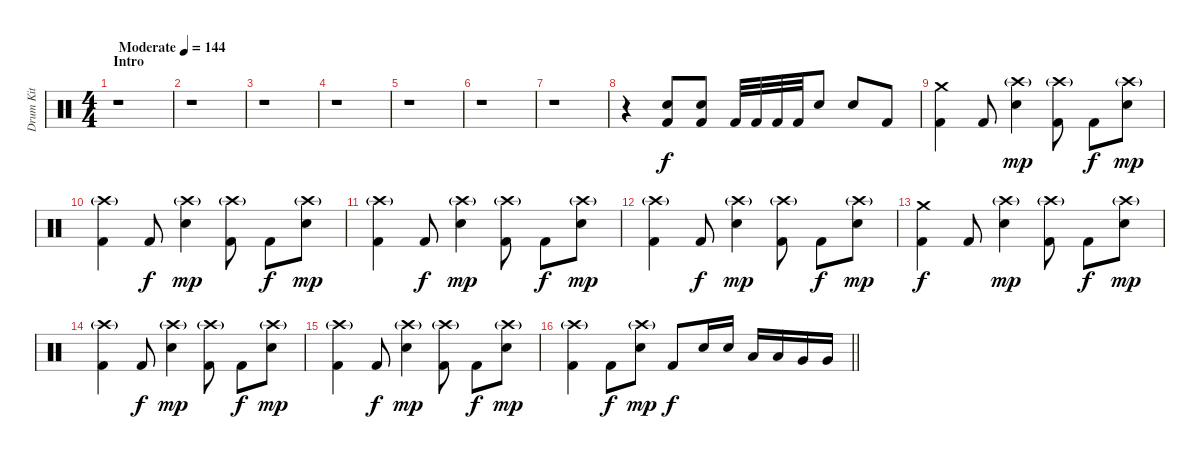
\track ("Drum Kit" "Drum Kit") {instrument percussion}
\staff {score}
\articulation defaults
\ts (4 4)
\section ("" "Intro")
\tempo (144 "Moderate")
\clef neutral
\ks c
r.1{dy f} |
r.1 |
r.1 |
r.1 |
r.1 |
r.1 |
r.1 |
r.4 ("Electric Snare (hit)" "Kick (hit) 2").8 ("Electric Snare (hit)" "Kick (hit) 2").8 "Kick (hit) 2".32 "Kick (hit) 2".32 "Kick (hit) 2".32 "Kick (hit) 2".32 "Electric Snare (hit)".8 "Electric Snare (hit)".8 "Kick (hit) 2".8 |
("Crash medium (hit)" "Kick (hit) 2").4 "Kick (hit) 2".8 ("Crash high (hit)"{g} "Electric Snare (hit)").4{dy mp} ("Crash high (hit)"{g} "Kick (hit) 2").8 "Kick (hit) 2".8{dy f} ("Crash high (hit)"{g} "Electric Snare (hit)").8{dy mp} |
("Crash high (hit)"{g} "Kick (hit) 2").4 "Kick (hit) 2".8{dy f} ("Crash high (hit)"{g} "Electric Snare (hit)").4{dy mp} ("Crash high (hit)"{g} "Kick (hit) 2").8 "Kick (hit) 2".8{dy f} ("Crash high (hit)"{g} "Electric Snare (hit)").8{dy mp} |
("Crash high (hit)"{g} "Kick (hit) 2").4 "Kick (hit) 2".8{dy f} ("Crash high (hit)"{g} "Electric Snare (hit)").4{dy mp} ("Crash high (hit)"{g} "Kick (hit) 2").8 "Kick (hit) 2".8{dy f} ("Crash high (hit)"{g} "Electric Snare (hit)").8{dy mp} |
("Crash high (hit)"{g} "Kick (hit) 2").4 "Kick (hit) 2".8{dy f} ("Crash high (hit)"{g} "Electric Snare (hit)").4{dy mp} ("Crash high (hit)"{g} "Kick (hit) 2").8 "Kick (hit) 2".8{dy f} ("Crash high (hit)"{g} "Electric Snare (hit)").8{dy mp} |
("Crash medium (hit)" "Kick (hit) 2").4{dy f} "Kick (hit) 2".8 ("Crash high (hit)"{g} "Electric Snare (hit)").4{dy mp} ("Crash high (hit)"{g} "Kick (hit) 2").8 "Kick (hit) 2".8{dy f} ("Crash high (hit)"{g} "Electric Snare (hit)").8{dy mp} |
("Crash high (hit)"{g} "Kick (hit) 2").4 "Kick (hit) 2".8{dy f} ("Crash high (hit)"{g} "Electric Snare (hit)").4{dy mp} ("Crash high (hit)"{g} "Kick (hit) 2").8 "Kick (hit) 2".8{dy f} ("Crash high (hit)"{g} "Electric Snare (hit)").8{dy mp} |
("Crash high (hit)"{g} "Kick (hit) 2").4 "Kick (hit) 2".8{dy f} ("Crash high (hit)"{g} "Electric Snare (hit)").4{dy mp} ("Crash high (hit)"{g} "Kick (hit) 2").8 "Kick (hit) 2".8{dy f} ("Crash high (hit)"{g} "Electric Snare (hit)").8{dy mp} |
\barLineRight lightlight
("Crash high (hit)"{g} "Kick (hit) 2").4 "Kick (hit) 2".8{dy f} ("Crash high (hit)"{g} "Electric Snare (hit)").8{dy mp} "Kick (hit) 2".8{dy f} "Electric Snare (hit)".16 "Electric Snare (hit)".16 "Low Tom (hit)".16 "Low Tom (hit)".16 "Very Low Tom (hit)".16 "Very Low Tom (hit)".16
